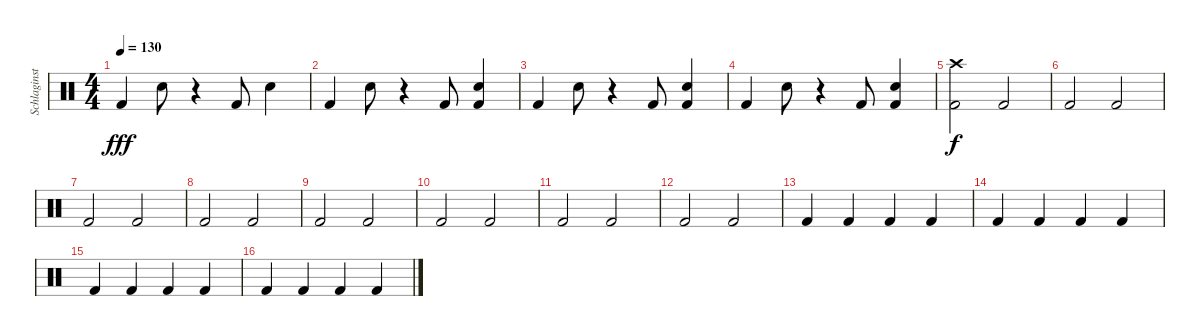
\track ("Schlaginstrumente - Auswahl" "Schlaginst") {instrument percussion}
\staff {score}
\articulation defaults
\ts (4 4)
\tempo 130
\clef neutral
\ks c "Kick (hit) 2".4{dy fff} "Snare (hit) 2".8
r.4 "Kick (hit) 2".8 "Snare (hit) 2".4 |
"Kick (hit) 2".4 "Snare (hit) 2".8 r.4 "Kick (hit) 2".8 ("Snare (hit) 2" "Kick (hit) 2").4 |
"Kick (hit) 2".4 "Snare (hit) 2".8 r.4 "Kick (hit) 2".8 ("Snare (hit) 2" "Kick (hit) 2").4 |
"Kick (hit) 2".4 "Snare (hit) 2".8 r.4 "Kick (hit) 2".8 ("Snare (hit) 2" "Kick (hit) 2").4 |
("Crash high (hit)" "Kick (hit) 2").2{dy f} "Kick (hit) 2".2 |
"Kick (hit) 2".2 "Kick (hit) 2".2 |
"Kick (hit) 2".2 "Kick (hit) 2".2 |
"Kick (hit) 2".2 "Kick (hit) 2".2 |
"Kick (hit) 2".2 "Kick (hit) 2".2 |
"Kick (hit) 2".2 "Kick (hit) 2".2 |
"Kick (hit) 2".2 "Kick (hit) 2".2 |
"Kick (hit) 2".2 "Kick (hit) 2".2 |
"Kick (hit) 2".4 "Kick (hit) 2".4 "Kick (hit) 2".4 "Kick (hit) 2".4 |
"Kick (hit) 2".4 "Kick (hit) 2".4 "Kick (hit) 2".4 "Kick (hit) 2".4 |
"Kick (hit) 2".4 "Kick (hit) 2".4 "Kick (hit) 2".4 "Kick (hit) 2".4 |
"Kick (hit) 2".4 "Kick (hit) 2".4 "Kick (hit) 2".4 "Kick (hit) 2".4
